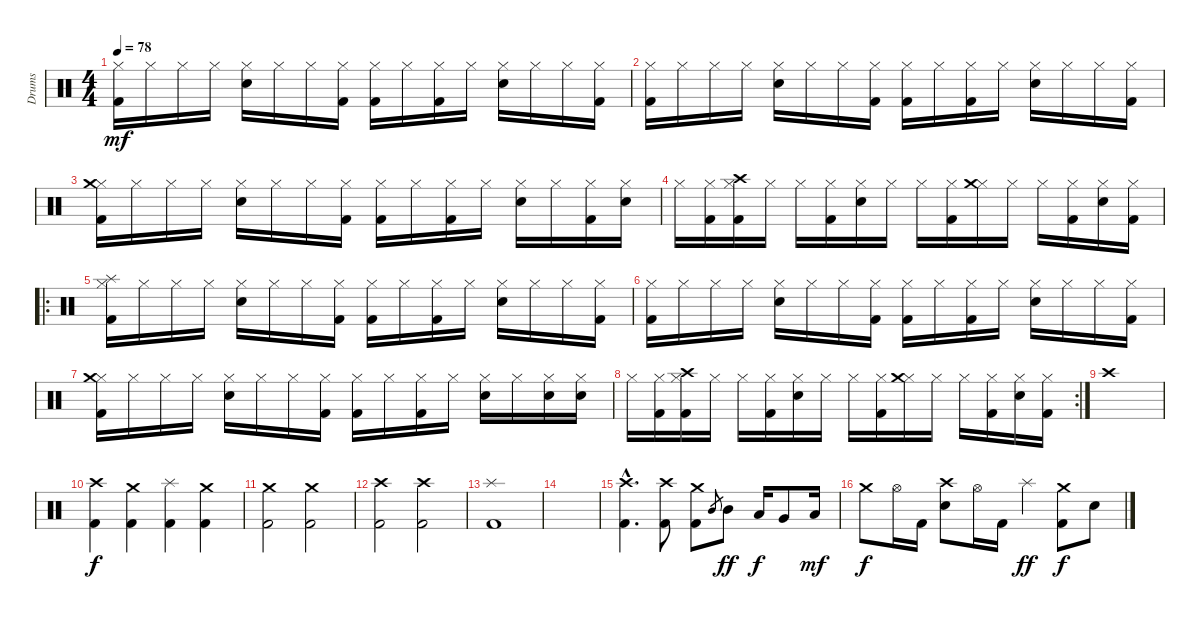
\track ("Drums" "Drums") {instrument percussion}
\staff {score}
\articulation defaults
\ts (4 4)
\tempo 78
\clef neutral
\ks c
("Hi-Hat (closed)" "Kick (hit) 2").16{dy mf} "Hi-Hat (closed)".16 "Hi-Hat (closed)".16 "Hi-Hat (closed)".16 ("Hi-Hat (closed)" "Electric Snare (hit)").16 "Hi-Hat (closed)".16 "Hi-Hat (closed)".16 ("Hi-Hat (closed)" "Kick (hit) 2").16 ("Hi-Hat (closed)" "Kick (hit) 2").16 "Hi-Hat (closed)".16 ("Hi-Hat (closed)" "Kick (hit) 2").16 "Hi-Hat (closed)".16 ("Hi-Hat (closed)" "Electric Snare (hit)").16 "Hi-Hat (closed)".16 "Hi-Hat (closed)".16 ("Hi-Hat (closed)" "Kick (hit) 2").16 |
("Hi-Hat (closed)" "Kick (hit) 2").16 "Hi-Hat (closed)".16 "Hi-Hat (closed)".16 "Hi-Hat (closed)".16 ("Hi-Hat (closed)" "Electric Snare (hit)").16 "Hi-Hat (closed)".16 "Hi-Hat (closed)".16 ("Hi-Hat (closed)" "Kick (hit) 2").16 ("Hi-Hat (closed)" "Kick (hit) 2").16 "Hi-Hat (closed)".16 ("Hi-Hat (closed)" "Kick (hit) 2").16 "Hi-Hat (closed)".16 ("Hi-Hat (closed)" "Electric Snare (hit)").16 "Hi-Hat (closed)".16 "Hi-Hat (closed)".16 ("Hi-Hat (closed)" "Kick (hit) 2").16 |
("Hi-Hat (closed)" "Crash medium (hit)" "Kick (hit) 2").16 "Hi-Hat (closed)".16 "Hi-Hat (closed)".16 "Hi-Hat (closed)".16 ("Hi-Hat (closed)" "Electric Snare (hit)").16 "Hi-Hat (closed)".16 "Hi-Hat (closed)".16 ("Hi-Hat (closed)" "Kick (hit) 2").16 ("Hi-Hat (closed)" "Kick (hit) 2").16 "Hi-Hat (closed)".16 ("Hi-Hat (closed)" "Kick (hit) 2").16 "Hi-Hat (closed)".16 ("Hi-Hat (closed)" "Electric Snare (hit)").16 "Hi-Hat (closed)".16 ("Hi-Hat (closed)" "Kick (hit) 2").16 ("Hi-Hat (closed)" "Electric Snare (hit)").16 |
"Hi-Hat (closed)".16 ("Hi-Hat (closed)" "Kick (hit) 2").16 ("Hi-Hat (closed)" "Crash high (hit)" "Kick (hit) 2").16 "Hi-Hat (closed)".16 "Hi-Hat (closed)".16 ("Hi-Hat (closed)" "Kick (hit) 2").16 ("Hi-Hat (closed)" "Electric Snare (hit)").16 "Hi-Hat (closed)".16 "Hi-Hat (closed)".16 ("Hi-Hat (closed)" "Kick (hit) 2").16 ("Hi-Hat (closed)" "Crash medium (hit)").16 "Hi-Hat (closed)".16 "Hi-Hat (closed)".16 ("Hi-Hat (closed)" "Kick (hit) 2").16 ("Hi-Hat (closed)" "Electric Snare (hit)").16 ("Hi-Hat (closed)" "Kick (hit) 2").16 |
\ro
("Hi-Hat (closed)" "Splash (hit)" "Kick (hit) 2").16 "Hi-Hat (closed)".16 "Hi-Hat (closed)".16 "Hi-Hat (closed)".16 ("Hi-Hat (closed)" "Electric Snare (hit)").16 "Hi-Hat (closed)".16 "Hi-Hat (closed)".16 ("Hi-Hat (closed)" "Kick (hit) 2").16 ("Hi-Hat (closed)" "Kick (hit) 2").16 "Hi-Hat (closed)".16 ("Hi-Hat (closed)" "Kick (hit) 2").16 "Hi-Hat (closed)".16 ("Hi-Hat (closed)" "Electric Snare (hit)").16 "Hi-Hat (closed)".16 "Hi-Hat (closed)".16 ("Hi-Hat (closed)" "Kick (hit) 2").16 |
("Hi-Hat (closed)" "Kick (hit) 2").16 "Hi-Hat (closed)".16 "Hi-Hat (closed)".16 "Hi-Hat (closed)".16 ("Hi-Hat (closed)" "Electric Snare (hit)").16 "Hi-Hat (closed)".16 "Hi-Hat (closed)".16 ("Hi-Hat (closed)" "Kick (hit) 2").16 ("Hi-Hat (closed)" "Kick (hit) 2").16 "Hi-Hat (closed)".16 ("Hi-Hat (closed)" "Kick (hit) 2").16 "Hi-Hat (closed)".16 ("Hi-Hat (closed)" "Electric Snare (hit)").16 "Hi-Hat (closed)".16 "Hi-Hat (closed)".16 ("Hi-Hat (closed)" "Kick (hit) 2").16 |
("Hi-Hat (closed)" "Crash medium (hit)" "Kick (hit) 2").16 "Hi-Hat (closed)".16 "Hi-Hat (closed)".16 "Hi-Hat (closed)".16 ("Hi-Hat (closed)" "Electric Snare (hit)").16 "Hi-Hat (closed)".16 "Hi-Hat (closed)".16 ("Hi-Hat (closed)" "Kick (hit) 2").16 ("Hi-Hat (closed)" "Kick (hit) 2").16 "Hi-Hat (closed)".16 ("Hi-Hat (closed)" "Kick (hit) 2").16 "Hi-Hat (closed)".16 ("Hi-Hat (closed)" "Electric Snare (hit)").16 "Hi-Hat (closed)".16 ("Hi-Hat (closed)" "Electric Snare (hit)").16 ("Hi-Hat (closed)" "Electric Snare (hit)").16 |
\rc 2 "Hi-Hat (closed)".16
("Hi-Hat (closed)" "Kick (hit) 2").16 ("Hi-Hat (closed)" "Crash high (hit)" "Kick (hit) 2").16 "Hi-Hat (closed)".16 "Hi-Hat (closed)".16 ("Hi-Hat (closed)" "Kick (hit) 2").16 ("Hi-Hat (closed)" "Electric Snare (hit)").16 "Hi-Hat (closed)".16 "Hi-Hat (closed)".16 ("Hi-Hat (closed)" "Kick (hit) 2").16 ("Hi-Hat (closed)" "Crash medium (hit)").16 "Hi-Hat (closed)".16 "Hi-Hat (closed)".16 ("Hi-Hat (closed)" "Kick (hit) 2").16 ("Hi-Hat (closed)" "Electric Snare (hit)").16 ("Hi-Hat (closed)" "Kick (hit) 2").16 |
"Crash high (hit)".1 |
("Crash high (hit)" "Kick (hit) 2").4{dy f} ("Crash medium (hit)" "Kick (hit) 2").4 ("Splash (hit)" "Kick (hit) 2").4 ("Crash medium (hit)" "Kick (hit) 2").4 |
("Crash medium (hit)" "Kick (hit) 2").2 ("Crash medium (hit)" "Kick (hit) 2").2 |
("Crash high (hit)" "Kick (hit) 2").2 ("Crash high (hit)" "Kick (hit) 2").2 |
("Splash (hit)" "Kick (hit) 2").1 |
|
("Crash high (hit)"{hac} "Kick (hit) 2"{hac}).4{d} ("Crash high (hit)" "Kick (hit) 2").8 ("Crash medium (hit)" "Kick (hit) 2").8 "Mid Tom (hit)".8{gr} "Mid Tom (hit)".8{dy ff} "Low Tom (hit)".16{dy f} "Very Low Tom (hit)".8 "Low Floor Tom (hit)".16{dy mf} |
"Crash medium (hit)".8{dy f} "Hi-Hat (open)".16 "Kick (hit) 2".16 ("Crash high (hit)" "Electric Snare (hit)").8 "Hi-Hat (open)".16 "Kick (hit) 2".16 "Splash (hit)".4{dy ff} ("Crash medium (hit)" "Kick (hit) 2").8{dy f} "Electric Snare (hit)".8
